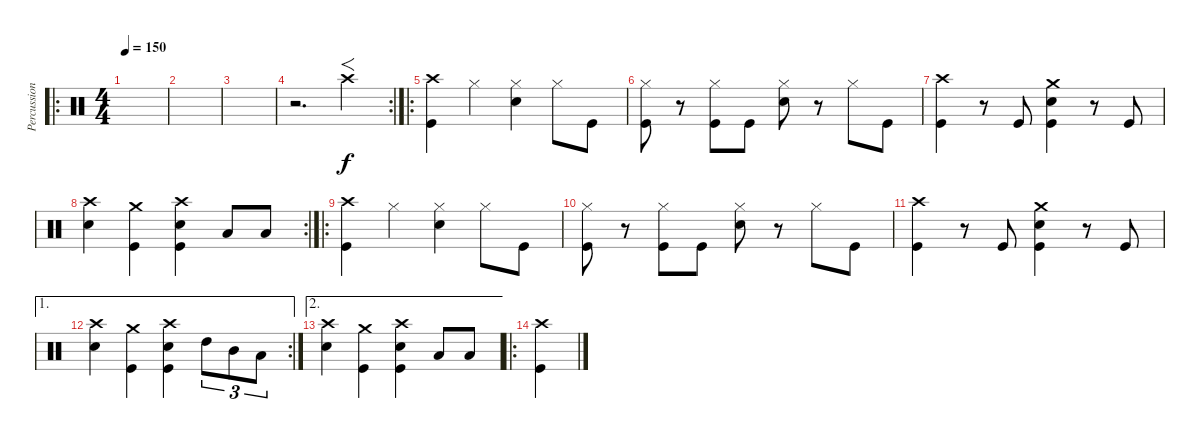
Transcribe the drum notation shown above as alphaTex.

\track ("Percussion" "Percussion") {instrument percussion}
\staff {score}
\articulation defaults
\ro
\ts (4 4)
\tempo 150
\clef neutral
\ks c
|
|
|
\rc 2
r.2{d} "Crash high (hit)".4{f} |
\ro
("Crash high (hit)" "Kick (hit)").4 "Hi-Hat (closed)".4 ("Hi-Hat (closed)" "Snare (hit) 2").4 "Hi-Hat (closed)".8 "Kick (hit)".8 |
("Hi-Hat (closed)" "Kick (hit)").8 r.8 ("Hi-Hat (closed)" "Kick (hit)").8 "Kick (hit)".8 ("Hi-Hat (closed)" "Snare (hit) 2").8 r.8 "Hi-Hat (closed)".8 "Kick (hit)".8 |
("Crash high (hit)" "Kick (hit)").4 r.8 "Kick (hit)".8 ("Crash medium (hit)" "Snare (hit) 2" "Kick (hit)").4 r.8 "Kick (hit)".8 |
\rc 2
("Crash high (hit)" "Snare (hit) 2").4 ("Crash medium (hit)" "Kick (hit)").4 ("Crash high (hit)" "Snare (hit) 2" "Kick (hit)").4 "Low Tom (hit)".8 "Low Tom (hit)".8 |
\ro
("Crash high (hit)" "Kick (hit)").4 "Hi-Hat (closed)".4 ("Hi-Hat (closed)" "Snare (hit) 2").4 "Hi-Hat (closed)".8 "Kick (hit)".8 |
("Hi-Hat (closed)" "Kick (hit)").8 r.8 ("Hi-Hat (closed)" "Kick (hit)").8 "Kick (hit)".8 ("Hi-Hat (closed)" "Snare (hit) 2").8 r.8 "Hi-Hat (closed)".8 "Kick (hit)".8 |
("Crash high (hit)" "Kick (hit)").4 r.8 "Kick (hit)".8 ("Crash medium (hit)" "Snare (hit) 2" "Kick (hit)").4 r.8 "Kick (hit)".8 |
\ae 1
\rc 2
("Crash high (hit)" "Snare (hit) 2").4 ("Crash medium (hit)" "Kick (hit)").4 ("Crash high (hit)" "Snare (hit) 2" "Kick (hit)").4 "High Tom (hit)".8{tu (3 2)} "Mid Tom (hit)".8{tu (3 2)} "Low Tom (hit)".8{tu (3 2)} |
\ae 2
("Crash high (hit)" "Snare (hit) 2").4 ("Crash medium (hit)" "Kick (hit)").4 ("Crash high (hit)" "Snare (hit) 2" "Kick (hit)").4 "Low Tom (hit)".8 "Low Tom (hit)".8 |
\ro
("Crash high (hit)" "Kick (hit)").4
